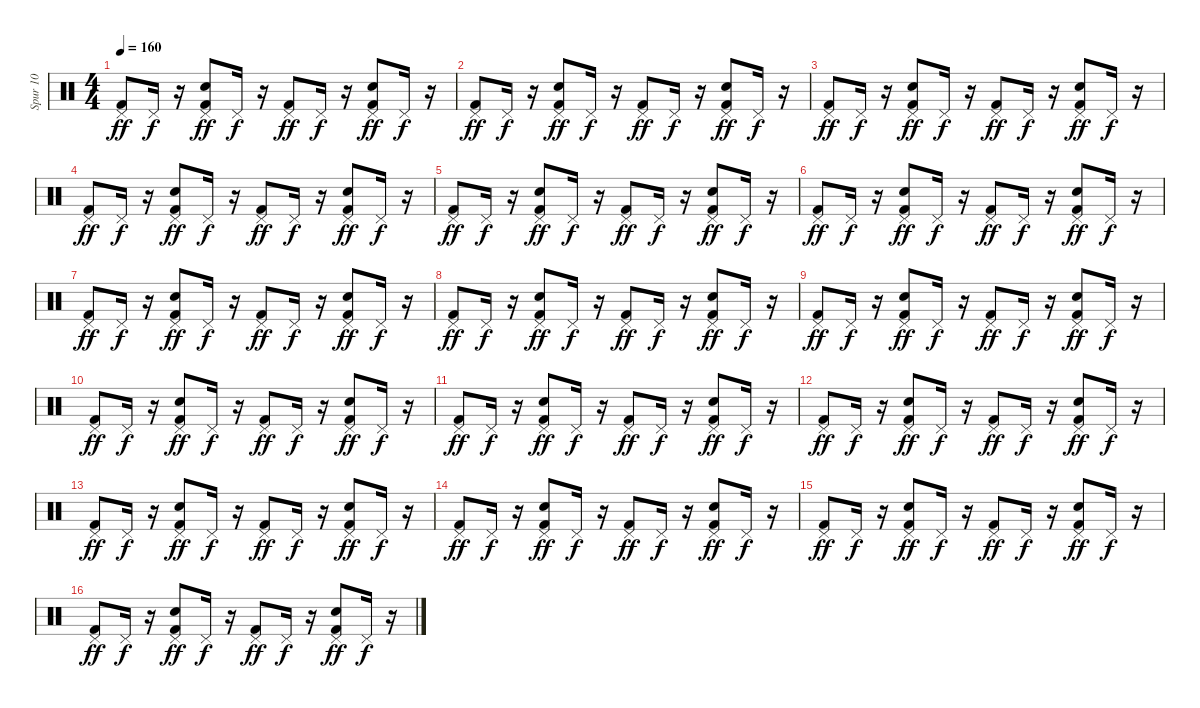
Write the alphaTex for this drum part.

\track ("Spur 10" "Spur 10") {instrument percussion}
\staff {score}
\articulation defaults
\ts (4 4)
\tempo 160
\clef neutral
\ks c
("Kick (hit) 2" "Pedal Hi-Hat (hit)").8{dy ff} "Pedal Hi-Hat (hit)".16{dy f} r.16 ("Snare (hit) 2" "Kick (hit) 2" "Pedal Hi-Hat (hit)").8{dy ff} "Pedal Hi-Hat (hit)".16{dy f} r.16 ("Kick (hit) 2" "Pedal Hi-Hat (hit)").8{dy ff} "Pedal Hi-Hat (hit)".16{dy f} r.16 ("Kick (hit) 2" "Snare (hit) 2" "Pedal Hi-Hat (hit)").8{dy ff} "Pedal Hi-Hat (hit)".16{dy f} r.16 |
("Kick (hit) 2" "Pedal Hi-Hat (hit)").8{dy ff} "Pedal Hi-Hat (hit)".16{dy f} r.16 ("Snare (hit) 2" "Kick (hit) 2" "Pedal Hi-Hat (hit)").8{dy ff} "Pedal Hi-Hat (hit)".16{dy f} r.16 ("Kick (hit) 2" "Pedal Hi-Hat (hit)").8{dy ff} "Pedal Hi-Hat (hit)".16{dy f} r.16 ("Kick (hit) 2" "Snare (hit) 2" "Pedal Hi-Hat (hit)").8{dy ff} "Pedal Hi-Hat (hit)".16{dy f} r.16 |
("Kick (hit) 2" "Pedal Hi-Hat (hit)").8{dy ff} "Pedal Hi-Hat (hit)".16{dy f} r.16 ("Kick (hit) 2" "Snare (hit) 2" "Pedal Hi-Hat (hit)").8{dy ff} "Pedal Hi-Hat (hit)".16{dy f} r.16 ("Kick (hit) 2" "Pedal Hi-Hat (hit)").8{dy ff} "Pedal Hi-Hat (hit)".16{dy f} r.16 ("Kick (hit) 2" "Snare (hit) 2" "Pedal Hi-Hat (hit)").8{dy ff} "Pedal Hi-Hat (hit)".16{dy f} r.16 |
("Kick (hit) 2" "Pedal Hi-Hat (hit)").8{dy ff} "Pedal Hi-Hat (hit)".16{dy f} r.16 ("Snare (hit) 2" "Kick (hit) 2" "Pedal Hi-Hat (hit)").8{dy ff} "Pedal Hi-Hat (hit)".16{dy f} r.16 ("Kick (hit) 2" "Pedal Hi-Hat (hit)").8{dy ff} "Pedal Hi-Hat (hit)".16{dy f} r.16 ("Kick (hit) 2" "Snare (hit) 2" "Pedal Hi-Hat (hit)").8{dy ff} "Pedal Hi-Hat (hit)".16{dy f} r.16 |
("Kick (hit) 2" "Pedal Hi-Hat (hit)").8{dy ff} "Pedal Hi-Hat (hit)".16{dy f} r.16 ("Kick (hit) 2" "Snare (hit) 2" "Pedal Hi-Hat (hit)").8{dy ff} "Pedal Hi-Hat (hit)".16{dy f} r.16 ("Kick (hit) 2" "Pedal Hi-Hat (hit)").8{dy ff} "Pedal Hi-Hat (hit)".16{dy f} r.16 ("Kick (hit) 2" "Snare (hit) 2" "Pedal Hi-Hat (hit)").8{dy ff} "Pedal Hi-Hat (hit)".16{dy f} r.16 |
("Kick (hit) 2" "Pedal Hi-Hat (hit)").8{dy ff} "Pedal Hi-Hat (hit)".16{dy f} r.16 ("Kick (hit) 2" "Snare (hit) 2" "Pedal Hi-Hat (hit)").8{dy ff} "Pedal Hi-Hat (hit)".16{dy f} r.16 ("Kick (hit) 2" "Pedal Hi-Hat (hit)").8{dy ff} "Pedal Hi-Hat (hit)".16{dy f} r.16 ("Snare (hit) 2" "Kick (hit) 2" "Pedal Hi-Hat (hit)").8{dy ff} "Pedal Hi-Hat (hit)".16{dy f} r.16 |
("Kick (hit) 2" "Pedal Hi-Hat (hit)").8{dy ff} "Pedal Hi-Hat (hit)".16{dy f} r.16 ("Kick (hit) 2" "Snare (hit) 2" "Pedal Hi-Hat (hit)").8{dy ff} "Pedal Hi-Hat (hit)".16{dy f} r.16 ("Kick (hit) 2" "Pedal Hi-Hat (hit)").8{dy ff} "Pedal Hi-Hat (hit)".16{dy f} r.16 ("Kick (hit) 2" "Snare (hit) 2" "Pedal Hi-Hat (hit)").8{dy ff} "Pedal Hi-Hat (hit)".16{dy f} r.16 |
("Kick (hit) 2" "Pedal Hi-Hat (hit)").8{dy ff} "Pedal Hi-Hat (hit)".16{dy f} r.16 ("Kick (hit) 2" "Snare (hit) 2" "Pedal Hi-Hat (hit)").8{dy ff} "Pedal Hi-Hat (hit)".16{dy f} r.16 ("Kick (hit) 2" "Pedal Hi-Hat (hit)").8{dy ff} "Pedal Hi-Hat (hit)".16{dy f} r.16 ("Snare (hit) 2" "Kick (hit) 2" "Pedal Hi-Hat (hit)").8{dy ff} "Pedal Hi-Hat (hit)".16{dy f} r.16 |
("Kick (hit) 2" "Pedal Hi-Hat (hit)").8{dy ff} "Pedal Hi-Hat (hit)".16{dy f} r.16 ("Snare (hit) 2" "Kick (hit) 2" "Pedal Hi-Hat (hit)").8{dy ff} "Pedal Hi-Hat (hit)".16{dy f} r.16 ("Kick (hit) 2" "Pedal Hi-Hat (hit)").8{dy ff} "Pedal Hi-Hat (hit)".16{dy f} r.16 ("Kick (hit) 2" "Snare (hit) 2" "Pedal Hi-Hat (hit)").8{dy ff} "Pedal Hi-Hat (hit)".16{dy f} r.16 |
("Kick (hit) 2" "Pedal Hi-Hat (hit)").8{dy ff} "Pedal Hi-Hat (hit)".16{dy f} r.16 ("Snare (hit) 2" "Kick (hit) 2" "Pedal Hi-Hat (hit)").8{dy ff} "Pedal Hi-Hat (hit)".16{dy f} r.16 ("Kick (hit) 2" "Pedal Hi-Hat (hit)").8{dy ff} "Pedal Hi-Hat (hit)".16{dy f} r.16 ("Kick (hit) 2" "Snare (hit) 2" "Pedal Hi-Hat (hit)").8{dy ff} "Pedal Hi-Hat (hit)".16{dy f} r.16 |
("Kick (hit) 2" "Pedal Hi-Hat (hit)").8{dy ff} "Pedal Hi-Hat (hit)".16{dy f} r.16 ("Kick (hit) 2" "Snare (hit) 2" "Pedal Hi-Hat (hit)").8{dy ff} "Pedal Hi-Hat (hit)".16{dy f} r.16 ("Kick (hit) 2" "Pedal Hi-Hat (hit)").8{dy ff} "Pedal Hi-Hat (hit)".16{dy f} r.16 ("Kick (hit) 2" "Snare (hit) 2" "Pedal Hi-Hat (hit)").8{dy ff} "Pedal Hi-Hat (hit)".16{dy f} r.16 |
("Kick (hit) 2" "Pedal Hi-Hat (hit)").8{dy ff} "Pedal Hi-Hat (hit)".16{dy f} r.16 ("Snare (hit) 2" "Kick (hit) 2" "Pedal Hi-Hat (hit)").8{dy ff} "Pedal Hi-Hat (hit)".16{dy f} r.16 ("Kick (hit) 2" "Pedal Hi-Hat (hit)").8{dy ff} "Pedal Hi-Hat (hit)".16{dy f} r.16 ("Kick (hit) 2" "Snare (hit) 2" "Pedal Hi-Hat (hit)").8{dy ff} "Pedal Hi-Hat (hit)".16{dy f} r.16 |
("Kick (hit) 2" "Pedal Hi-Hat (hit)").8{dy ff} "Pedal Hi-Hat (hit)".16{dy f} r.16 ("Kick (hit) 2" "Snare (hit) 2" "Pedal Hi-Hat (hit)").8{dy ff} "Pedal Hi-Hat (hit)".16{dy f} r.16 ("Kick (hit) 2" "Pedal Hi-Hat (hit)").8{dy ff} "Pedal Hi-Hat (hit)".16{dy f} r.16 ("Kick (hit) 2" "Snare (hit) 2" "Pedal Hi-Hat (hit)").8{dy ff} "Pedal Hi-Hat (hit)".16{dy f} r.16 |
("Kick (hit) 2" "Pedal Hi-Hat (hit)").8{dy ff} "Pedal Hi-Hat (hit)".16{dy f} r.16 ("Kick (hit) 2" "Snare (hit) 2" "Pedal Hi-Hat (hit)").8{dy ff} "Pedal Hi-Hat (hit)".16{dy f} r.16 ("Kick (hit) 2" "Pedal Hi-Hat (hit)").8{dy ff} "Pedal Hi-Hat (hit)".16{dy f} r.16 ("Snare (hit) 2" "Kick (hit) 2" "Pedal Hi-Hat (hit)").8{dy ff} "Pedal Hi-Hat (hit)".16{dy f} r.16 |
("Kick (hit) 2" "Pedal Hi-Hat (hit)").8{dy ff} "Pedal Hi-Hat (hit)".16{dy f} r.16 ("Kick (hit) 2" "Snare (hit) 2" "Pedal Hi-Hat (hit)").8{dy ff} "Pedal Hi-Hat (hit)".16{dy f} r.16 ("Kick (hit) 2" "Pedal Hi-Hat (hit)").8{dy ff} "Pedal Hi-Hat (hit)".16{dy f} r.16 ("Kick (hit) 2" "Snare (hit) 2" "Pedal Hi-Hat (hit)").8{dy ff} "Pedal Hi-Hat (hit)".16{dy f} r.16 |
("Kick (hit) 2" "Pedal Hi-Hat (hit)").8{dy ff} "Pedal Hi-Hat (hit)".16{dy f} r.16 ("Kick (hit) 2" "Snare (hit) 2" "Pedal Hi-Hat (hit)").8{dy ff} "Pedal Hi-Hat (hit)".16{dy f} r.16 ("Kick (hit) 2" "Pedal Hi-Hat (hit)").8{dy ff} "Pedal Hi-Hat (hit)".16{dy f} r.16 ("Snare (hit) 2" "Kick (hit) 2" "Pedal Hi-Hat (hit)").8{dy ff} "Pedal Hi-Hat (hit)".16{dy f} r.16
